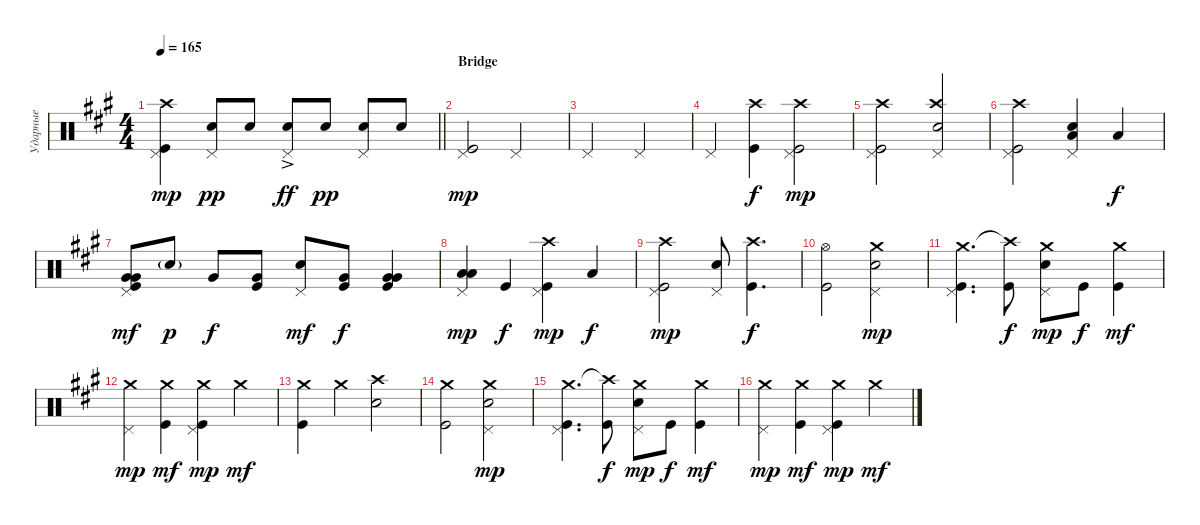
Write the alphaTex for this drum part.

\track ("Ударные" "Ударные") {instrument percussion}
\staff {score}
\articulation defaults
\ts (4 4)
\tempo 165
\clef neutral
\barLineRight lightlight
\ks f#minor
("Pedal Hi-Hat (hit)" "Kick (hit)" "Crash high (hit)").4{dy mp} ("Pedal Hi-Hat (hit)" "Snare (hit) 2").8{dy pp} "Snare (hit) 2".8 ("Pedal Hi-Hat (hit)" "Snare (hit) 2"{ac}).8{dy ff} "Snare (hit) 2".8{dy pp} ("Pedal Hi-Hat (hit)" "Snare (hit) 2").8 "Snare (hit) 2".8 |
\section ("" "Bridge")
("Kick (hit)" "Pedal Hi-Hat (hit)").2{dy mp} "Pedal Hi-Hat (hit)".2 |
"Pedal Hi-Hat (hit)".2 "Pedal Hi-Hat (hit)".2 |
"Pedal Hi-Hat (hit)".4 ("Kick (hit)" "Crash high (hit)").4{dy f} ("Kick (hit)" "Pedal Hi-Hat (hit)" "Crash high (hit)").2{dy mp} |
("Pedal Hi-Hat (hit)" "Kick (hit)" "Crash high (hit)").2 ("Pedal Hi-Hat (hit)" "Snare (hit) 2" "Crash high (hit)").2 |
("Pedal Hi-Hat (hit)" "Kick (hit)" "Crash high (hit)").2 ("Pedal Hi-Hat (hit)" "Snare (hit) 2" "Low Tom (hit)").4{bd 240} "Low Tom (hit)".4{dy f} |
("Very Low Tom (hit)" "Very Low Tom (hit)" "Kick (hit)" "Pedal Hi-Hat (hit)").8{bd 120 dy mf} "Snare (hit) 2"{g}.8{dy p} "Very Low Tom (hit)".8{dy f} ("Kick (hit)" "Very Low Tom (hit)").8 ("Pedal Hi-Hat (hit)" "Snare (hit) 2").8{dy mf} ("Kick (hit)" "Very Low Tom (hit)").8{dy f} ("Kick (hit)" "Very Low Tom (hit)" "Very Low Tom (hit)").4{bd 120} |
("Low Tom (hit)" "Low Tom (hit)" "Pedal Hi-Hat (hit)").4{bd 240 dy mp} "Kick (hit)".4{dy f} ("Kick (hit)" "Pedal Hi-Hat (hit)" "Crash high (hit)").4{dy mp} "Low Tom (hit)".4{dy f} |
("Kick (hit)" "Crash high (hit)" "Pedal Hi-Hat (hit)").2{dy mp} ("Snare (hit) 2" "Pedal Hi-Hat (hit)").8 ("Kick (hit)" "Crash high (hit)").4{d dy f} |
("Kick (hit)" "Hi-Hat (open)").2 ("Snare (hit) 2" "Crash medium (hit)" "Pedal Hi-Hat (hit)").2{dy mp} |
("Kick (hit)" "Crash medium (hit)" "Pedal Hi-Hat (hit)").4{d} ("Kick (hit)" "Crash high (hit)"{t}).8{dy f} ("Snare (hit) 2" "Crash medium (hit)" "Pedal Hi-Hat (hit)").8{dy mp} "Kick (hit)".8{dy f} ("Kick (hit)" "Crash medium (hit)").4{dy mf} |
("Crash medium (hit)" "Pedal Hi-Hat (hit)").4{dy mp} ("Crash medium (hit)" "Kick (hit)").4{dy mf} ("Crash medium (hit)" "Kick (hit)" "Pedal Hi-Hat (hit)").4{dy mp} "Crash medium (hit)".4{dy mf} |
("Crash medium (hit)" "Kick (hit)").4 "Crash medium (hit)".4 ("Crash high (hit)" "Snare (hit) 2").2 |
("Kick (hit)" "Crash medium (hit)").2 ("Snare (hit) 2" "Crash medium (hit)" "Pedal Hi-Hat (hit)").2{dy mp} |
("Kick (hit)" "Crash medium (hit)" "Pedal Hi-Hat (hit)").4{d} ("Kick (hit)" "Crash high (hit)"{t}).8{dy f} ("Snare (hit) 2" "Crash medium (hit)" "Pedal Hi-Hat (hit)").8{dy mp} "Kick (hit)".8{dy f} ("Kick (hit)" "Crash medium (hit)").4{dy mf} |
("Crash medium (hit)" "Pedal Hi-Hat (hit)").4{dy mp} ("Crash medium (hit)" "Kick (hit)").4{dy mf} ("Crash medium (hit)" "Kick (hit)" "Pedal Hi-Hat (hit)").4{dy mp} "Crash medium (hit)".4{dy mf}
